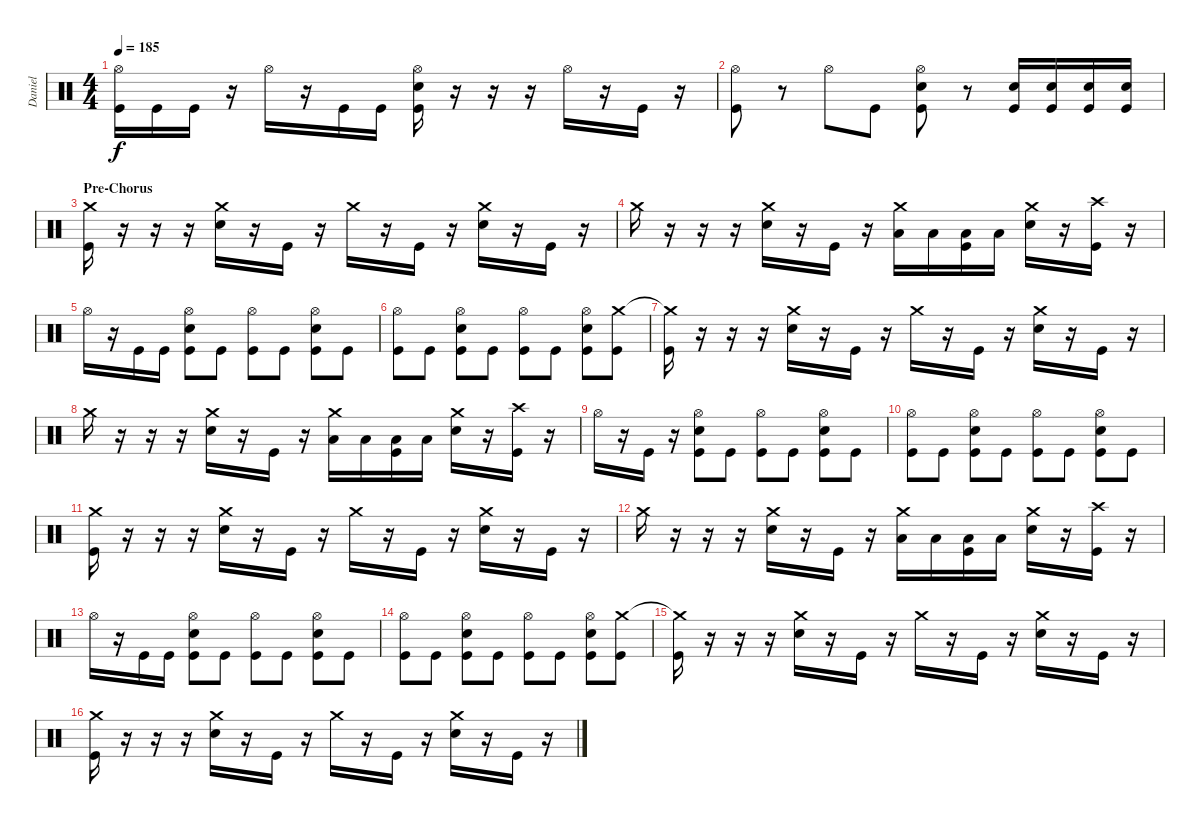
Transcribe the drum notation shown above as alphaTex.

\track ("Daniel" "Daniel") {instrument percussion}
\staff {score}
\articulation defaults
\ts (4 4)
\tempo 185
\clef neutral
\ks c
("Hi-Hat (open)" "Kick (hit)").16{dy f} "Kick (hit)".16 "Kick (hit)".16 r.16 "Hi-Hat (open)".16 r.16 "Kick (hit)".16 "Kick (hit)".16 ("Hi-Hat (open)" "Snare (hit) 2" "Kick (hit)").16 r.16 r.16 r.16 "Hi-Hat (open)".16 r.16 "Kick (hit)".16 r.16 |
("Hi-Hat (open)" "Kick (hit)").8 r.8 "Hi-Hat (open)".8 "Kick (hit)".8 ("Hi-Hat (open)" "Snare (hit) 2" "Kick (hit)").8 r.8 ("Snare (hit) 2" "Kick (hit)").16 ("Snare (hit) 2" "Kick (hit)").16 ("Snare (hit) 2" "Kick (hit)").16 ("Snare (hit) 2" "Kick (hit)").16 |
\section ("" "Pre-Chorus")
("Crash medium (hit)" "Kick (hit)").16 r.16 r.16 r.16 ("Crash medium (hit)" "Snare (hit) 2").16 r.16 "Kick (hit)".16 r.16 "Crash medium (hit)".16 r.16 "Kick (hit)".16 r.16 ("Crash medium (hit)" "Snare (hit) 2").16 r.16 "Kick (hit)".16 r.16 |
"Crash medium (hit)".16 r.16 r.16 r.16 ("Crash medium (hit)" "Snare (hit) 2").16 r.16 "Kick (hit)".16 r.16 ("Crash medium (hit)" "Low Floor Tom (hit)").16 "Low Floor Tom (hit)".16 ("Low Floor Tom (hit)" "Kick (hit)").16 "Low Floor Tom (hit)".16 ("Crash medium (hit)" "Snare (hit) 2").16 r.16 ("Crash high (hit)" "Kick (hit)").16 r.16 |
"Hi-Hat (open)".16 r.16 "Kick (hit)".16 "Kick (hit)".16 ("Hi-Hat (open)" "Snare (hit) 2" "Kick (hit)").8 "Kick (hit)".8 ("Hi-Hat (open)" "Kick (hit)").8 "Kick (hit)".8 ("Hi-Hat (open)" "Snare (hit) 2" "Kick (hit)").8 "Kick (hit)".8 |
("Hi-Hat (open)" "Kick (hit)").8 "Kick (hit)".8 ("Hi-Hat (open)" "Snare (hit) 2" "Kick (hit)").8 "Kick (hit)".8 ("Hi-Hat (open)" "Kick (hit)").8 "Kick (hit)".8 ("Hi-Hat (open)" "Snare (hit) 2" "Kick (hit)").8 ("Crash medium (hit)" "Kick (hit)").8 |
("Crash medium (hit)"{t} "Kick (hit)").16 r.16 r.16 r.16 ("Crash medium (hit)" "Snare (hit) 2").16 r.16 "Kick (hit)".16 r.16 "Crash medium (hit)".16 r.16 "Kick (hit)".16 r.16 ("Crash medium (hit)" "Snare (hit) 2").16 r.16 "Kick (hit)".16 r.16 |
"Crash medium (hit)".16 r.16 r.16 r.16 ("Crash medium (hit)" "Snare (hit) 2").16 r.16 "Kick (hit)".16 r.16 ("Crash medium (hit)" "Low Floor Tom (hit)").16 "Low Floor Tom (hit)".16 ("Low Floor Tom (hit)" "Kick (hit)").16 "Low Floor Tom (hit)".16 ("Crash medium (hit)" "Snare (hit) 2").16 r.16 ("Crash high (hit)" "Kick (hit)").16 r.16 |
"Hi-Hat (open)".16 r.16 "Kick (hit)".16 r.16 ("Hi-Hat (open)" "Snare (hit) 2" "Kick (hit)").8 "Kick (hit)".8 ("Hi-Hat (open)" "Kick (hit)").8 "Kick (hit)".8 ("Hi-Hat (open)" "Snare (hit) 2" "Kick (hit)").8 "Kick (hit)".8 |
("Hi-Hat (open)" "Kick (hit)").8 "Kick (hit)".8 ("Hi-Hat (open)" "Snare (hit) 2" "Kick (hit)").8 "Kick (hit)".8 ("Hi-Hat (open)" "Kick (hit)").8 "Kick (hit)".8 ("Hi-Hat (open)" "Snare (hit) 2" "Kick (hit)").8 "Kick (hit)".8 |
("Crash medium (hit)" "Kick (hit)").16 r.16 r.16 r.16 ("Crash medium (hit)" "Snare (hit) 2").16 r.16 "Kick (hit)".16 r.16 "Crash medium (hit)".16 r.16 "Kick (hit)".16 r.16 ("Crash medium (hit)" "Snare (hit) 2").16 r.16 "Kick (hit)".16 r.16 |
"Crash medium (hit)".16 r.16 r.16 r.16 ("Crash medium (hit)" "Snare (hit) 2").16 r.16 "Kick (hit)".16 r.16 ("Crash medium (hit)" "Low Floor Tom (hit)").16 "Low Floor Tom (hit)".16 ("Low Floor Tom (hit)" "Kick (hit)").16 "Low Floor Tom (hit)".16 ("Crash medium (hit)" "Snare (hit) 2").16 r.16 ("Crash high (hit)" "Kick (hit)").16 r.16 |
"Hi-Hat (open)".16 r.16 "Kick (hit)".16 "Kick (hit)".16 ("Hi-Hat (open)" "Snare (hit) 2" "Kick (hit)").8 "Kick (hit)".8 ("Hi-Hat (open)" "Kick (hit)").8 "Kick (hit)".8 ("Hi-Hat (open)" "Snare (hit) 2" "Kick (hit)").8 "Kick (hit)".8 |
("Hi-Hat (open)" "Kick (hit)").8 "Kick (hit)".8 ("Hi-Hat (open)" "Snare (hit) 2" "Kick (hit)").8 "Kick (hit)".8 ("Hi-Hat (open)" "Kick (hit)").8 "Kick (hit)".8 ("Hi-Hat (open)" "Snare (hit) 2" "Kick (hit)").8 ("Crash medium (hit)" "Kick (hit)").8 |
("Crash medium (hit)"{t} "Kick (hit)").16 r.16 r.16 r.16 ("Crash medium (hit)" "Snare (hit) 2").16 r.16 "Kick (hit)".16 r.16 "Crash medium (hit)".16 r.16 "Kick (hit)".16 r.16 ("Crash medium (hit)" "Snare (hit) 2").16 r.16 "Kick (hit)".16 r.16 |
("Crash medium (hit)" "Kick (hit)").16 r.16 r.16 r.16 ("Crash medium (hit)" "Snare (hit) 2").16 r.16 "Kick (hit)".16 r.16 "Crash medium (hit)".16 r.16 "Kick (hit)".16 r.16 ("Crash medium (hit)" "Snare (hit) 2").16 r.16 "Kick (hit)".16 r.16
